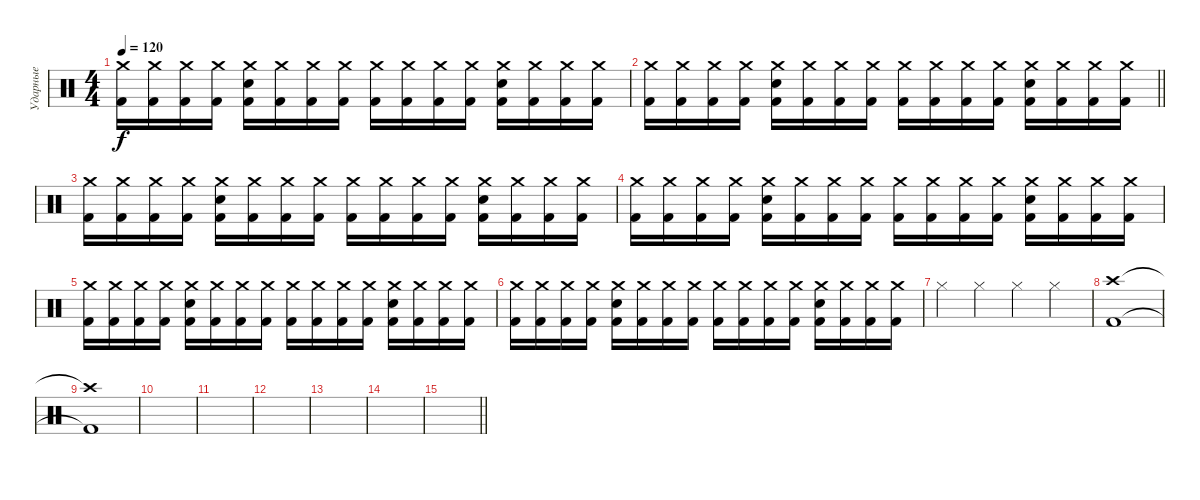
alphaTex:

\track ("Ударные" "Ударные") {instrument percussion}
\staff {score}
\articulation defaults
\ts (4 4)
\tempo 120
\clef neutral
\ks c
("Kick (hit) 2" "Crash medium (hit)").16{dy f} ("Kick (hit) 2" "Crash medium (hit)").16 ("Kick (hit) 2" "Crash medium (hit)").16 ("Kick (hit) 2" "Crash medium (hit)").16 ("Kick (hit) 2" "Electric Snare (hit)" "Crash medium (hit)").16 ("Kick (hit) 2" "Crash medium (hit)").16 ("Kick (hit) 2" "Crash medium (hit)").16 ("Kick (hit) 2" "Crash medium (hit)").16 ("Kick (hit) 2" "Crash medium (hit)").16 ("Kick (hit) 2" "Crash medium (hit)").16 ("Kick (hit) 2" "Crash medium (hit)").16 ("Kick (hit) 2" "Crash medium (hit)").16 ("Kick (hit) 2" "Electric Snare (hit)" "Crash medium (hit)").16 ("Kick (hit) 2" "Crash medium (hit)").16 ("Kick (hit) 2" "Crash medium (hit)").16 ("Kick (hit) 2" "Crash medium (hit)").16 |
\barLineRight lightlight
("Kick (hit) 2" "Crash medium (hit)").16 ("Kick (hit) 2" "Crash medium (hit)").16 ("Kick (hit) 2" "Crash medium (hit)").16 ("Kick (hit) 2" "Crash medium (hit)").16 ("Kick (hit) 2" "Electric Snare (hit)" "Crash medium (hit)").16 ("Kick (hit) 2" "Crash medium (hit)").16 ("Kick (hit) 2" "Crash medium (hit)").16 ("Kick (hit) 2" "Crash medium (hit)").16 ("Kick (hit) 2" "Crash medium (hit)").16 ("Kick (hit) 2" "Crash medium (hit)").16 ("Kick (hit) 2" "Crash medium (hit)").16 ("Kick (hit) 2" "Crash medium (hit)").16 ("Kick (hit) 2" "Electric Snare (hit)" "Crash medium (hit)").16 ("Kick (hit) 2" "Crash medium (hit)").16 ("Kick (hit) 2" "Crash medium (hit)").16 ("Kick (hit) 2" "Crash medium (hit)").16 |
("Kick (hit) 2" "Crash medium (hit)").16 ("Kick (hit) 2" "Crash medium (hit)").16 ("Kick (hit) 2" "Crash medium (hit)").16 ("Kick (hit) 2" "Crash medium (hit)").16 ("Kick (hit) 2" "Electric Snare (hit)" "Crash medium (hit)").16 ("Kick (hit) 2" "Crash medium (hit)").16 ("Kick (hit) 2" "Crash medium (hit)").16 ("Kick (hit) 2" "Crash medium (hit)").16 ("Kick (hit) 2" "Crash medium (hit)").16 ("Kick (hit) 2" "Crash medium (hit)").16 ("Kick (hit) 2" "Crash medium (hit)").16 ("Kick (hit) 2" "Crash medium (hit)").16 ("Kick (hit) 2" "Electric Snare (hit)" "Crash medium (hit)").16 ("Kick (hit) 2" "Crash medium (hit)").16 ("Kick (hit) 2" "Crash medium (hit)").16 ("Kick (hit) 2" "Crash medium (hit)").16 |
("Kick (hit) 2" "Crash medium (hit)").16 ("Kick (hit) 2" "Crash medium (hit)").16 ("Kick (hit) 2" "Crash medium (hit)").16 ("Kick (hit) 2" "Crash medium (hit)").16 ("Kick (hit) 2" "Electric Snare (hit)" "Crash medium (hit)").16 ("Kick (hit) 2" "Crash medium (hit)").16 ("Kick (hit) 2" "Crash medium (hit)").16 ("Kick (hit) 2" "Crash medium (hit)").16 ("Kick (hit) 2" "Crash medium (hit)").16 ("Kick (hit) 2" "Crash medium (hit)").16 ("Kick (hit) 2" "Crash medium (hit)").16 ("Kick (hit) 2" "Crash medium (hit)").16 ("Kick (hit) 2" "Electric Snare (hit)" "Crash medium (hit)").16 ("Kick (hit) 2" "Crash medium (hit)").16 ("Kick (hit) 2" "Crash medium (hit)").16 ("Kick (hit) 2" "Crash medium (hit)").16 |
("Kick (hit) 2" "Crash medium (hit)").16 ("Kick (hit) 2" "Crash medium (hit)").16 ("Kick (hit) 2" "Crash medium (hit)").16 ("Kick (hit) 2" "Crash medium (hit)").16 ("Kick (hit) 2" "Electric Snare (hit)" "Crash medium (hit)").16 ("Kick (hit) 2" "Crash medium (hit)").16 ("Kick (hit) 2" "Crash medium (hit)").16 ("Kick (hit) 2" "Crash medium (hit)").16 ("Kick (hit) 2" "Crash medium (hit)").16 ("Kick (hit) 2" "Crash medium (hit)").16 ("Kick (hit) 2" "Crash medium (hit)").16 ("Kick (hit) 2" "Crash medium (hit)").16 ("Kick (hit) 2" "Electric Snare (hit)" "Crash medium (hit)").16 ("Kick (hit) 2" "Crash medium (hit)").16 ("Kick (hit) 2" "Crash medium (hit)").16 ("Kick (hit) 2" "Crash medium (hit)").16 |
("Kick (hit) 2" "Crash medium (hit)").16 ("Kick (hit) 2" "Crash medium (hit)").16 ("Kick (hit) 2" "Crash medium (hit)").16 ("Kick (hit) 2" "Crash medium (hit)").16 ("Kick (hit) 2" "Electric Snare (hit)" "Crash medium (hit)").16 ("Kick (hit) 2" "Crash medium (hit)").16 ("Kick (hit) 2" "Crash medium (hit)").16 ("Kick (hit) 2" "Crash medium (hit)").16 ("Kick (hit) 2" "Crash medium (hit)").16 ("Kick (hit) 2" "Crash medium (hit)").16 ("Kick (hit) 2" "Crash medium (hit)").16 ("Kick (hit) 2" "Crash medium (hit)").16 ("Kick (hit) 2" "Electric Snare (hit)" "Crash medium (hit)").16 ("Kick (hit) 2" "Crash medium (hit)").16 ("Kick (hit) 2" "Crash medium (hit)").16 ("Kick (hit) 2" "Crash medium (hit)").16 |
"Hi-Hat (closed)".4 "Hi-Hat (closed)".4 "Hi-Hat (closed)".4 "Hi-Hat (closed)".4 |
("Kick (hit) 2" "Crash high (hit)").1 |
("Kick (hit) 2"{t} "Crash high (hit)"{t}).1 |
|
|
|
|
|
\barLineRight lightlight
